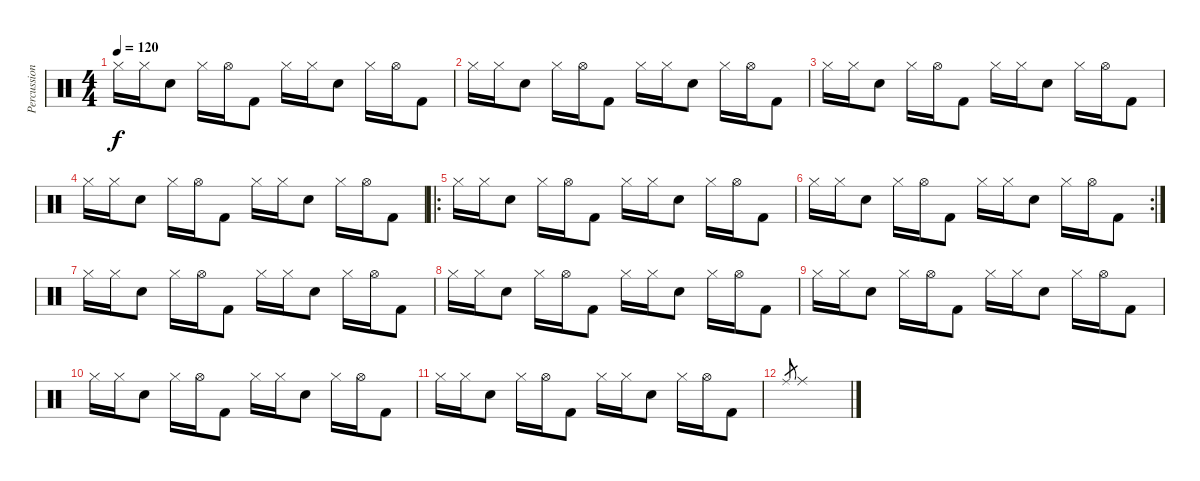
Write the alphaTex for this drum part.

\track ("Percussions" "Percussion") {instrument percussion}
\staff {score}
\articulation defaults
\ts (4 4)
\tempo 120
\clef neutral
\ks c "Hi-Hat (closed)".16{dy f} "Hi-Hat (closed)".16 "Snare (hit) 2".8 "Hi-Hat (closed)".16 "Hi-Hat (open)".16 "Kick (hit) 2".8 "Hi-Hat (closed)".16 "Hi-Hat (closed)".16 "Snare (hit) 2".8 "Hi-Hat (closed)".16 "Hi-Hat (open)".16 "Kick (hit) 2".8
|
"Hi-Hat (closed)".16 "Hi-Hat (closed)".16 "Snare (hit) 2".8 "Hi-Hat (closed)".16 "Hi-Hat (open)".16 "Kick (hit) 2".8 "Hi-Hat (closed)".16 "Hi-Hat (closed)".16 "Snare (hit) 2".8 "Hi-Hat (closed)".16 "Hi-Hat (open)".16 "Kick (hit) 2".8 |
"Hi-Hat (closed)".16 "Hi-Hat (closed)".16 "Snare (hit) 2".8 "Hi-Hat (closed)".16 "Hi-Hat (open)".16 "Kick (hit) 2".8 "Hi-Hat (closed)".16 "Hi-Hat (closed)".16 "Snare (hit) 2".8 "Hi-Hat (closed)".16 "Hi-Hat (open)".16 "Kick (hit) 2".8 |
"Hi-Hat (closed)".16 "Hi-Hat (closed)".16 "Snare (hit) 2".8 "Hi-Hat (closed)".16 "Hi-Hat (open)".16 "Kick (hit) 2".8 "Hi-Hat (closed)".16 "Hi-Hat (closed)".16 "Snare (hit) 2".8 "Hi-Hat (closed)".16 "Hi-Hat (open)".16 "Kick (hit) 2".8 |
\ro "Hi-Hat (closed)".16 "Hi-Hat (closed)".16 "Snare (hit) 2".8 "Hi-Hat (closed)".16 "Hi-Hat (open)".16 "Kick (hit) 2".8 "Hi-Hat (closed)".16 "Hi-Hat (closed)".16 "Snare (hit) 2".8 "Hi-Hat (closed)".16 "Hi-Hat (open)".16 "Kick (hit) 2".8
|
\rc 2 "Hi-Hat (closed)".16 "Hi-Hat (closed)".16 "Snare (hit) 2".8 "Hi-Hat (closed)".16 "Hi-Hat (open)".16 "Kick (hit) 2".8 "Hi-Hat (closed)".16 "Hi-Hat (closed)".16 "Snare (hit) 2".8 "Hi-Hat (closed)".16 "Hi-Hat (open)".16 "Kick (hit) 2".8
|
"Hi-Hat (closed)".16 "Hi-Hat (closed)".16 "Snare (hit) 2".8 "Hi-Hat (closed)".16 "Hi-Hat (open)".16 "Kick (hit) 2".8 "Hi-Hat (closed)".16 "Hi-Hat (closed)".16 "Snare (hit) 2".8 "Hi-Hat (closed)".16 "Hi-Hat (open)".16 "Kick (hit) 2".8 |
"Hi-Hat (closed)".16 "Hi-Hat (closed)".16 "Snare (hit) 2".8 "Hi-Hat (closed)".16 "Hi-Hat (open)".16 "Kick (hit) 2".8 "Hi-Hat (closed)".16 "Hi-Hat (closed)".16 "Snare (hit) 2".8 "Hi-Hat (closed)".16 "Hi-Hat (open)".16 "Kick (hit) 2".8 |
"Hi-Hat (closed)".16 "Hi-Hat (closed)".16 "Snare (hit) 2".8 "Hi-Hat (closed)".16 "Hi-Hat (open)".16 "Kick (hit) 2".8 "Hi-Hat (closed)".16 "Hi-Hat (closed)".16 "Snare (hit) 2".8 "Hi-Hat (closed)".16 "Hi-Hat (open)".16 "Kick (hit) 2".8 |
"Hi-Hat (closed)".16 "Hi-Hat (closed)".16 "Snare (hit) 2".8 "Hi-Hat (closed)".16 "Hi-Hat (open)".16 "Kick (hit) 2".8 "Hi-Hat (closed)".16 "Hi-Hat (closed)".16 "Snare (hit) 2".8 "Hi-Hat (closed)".16 "Hi-Hat (open)".16 "Kick (hit) 2".8 |
"Hi-Hat (closed)".16 "Hi-Hat (closed)".16 "Snare (hit) 2".8 "Hi-Hat (closed)".16 "Hi-Hat (open)".16 "Kick (hit) 2".8 "Hi-Hat (closed)".16 "Hi-Hat (closed)".16 "Snare (hit) 2".8 "Hi-Hat (closed)".16 "Hi-Hat (open)".16 "Kick (hit) 2".8 |
"Ride (middle)".8{gr} "Ride (middle)".1
